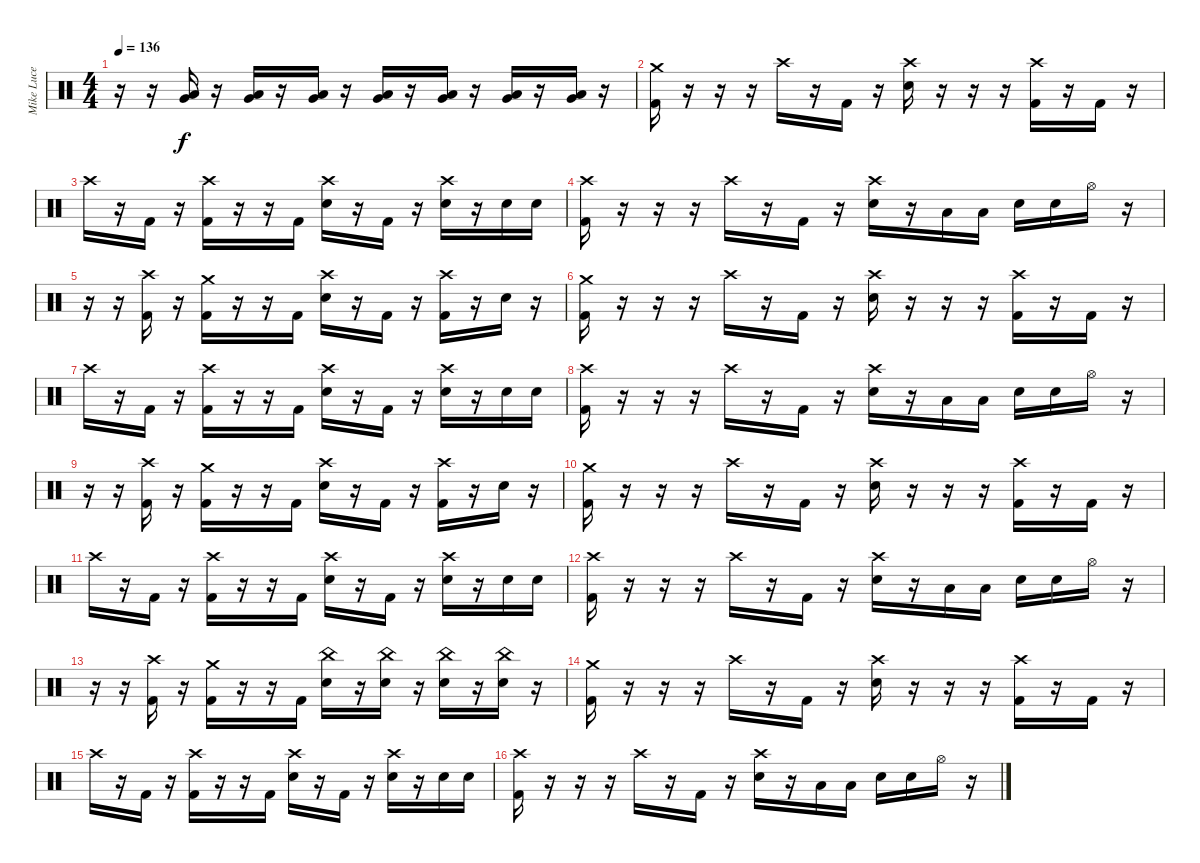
\track ("Mike Luce" "Mike Luce") {instrument percussion}
\staff {score}
\articulation defaults
\ts (4 4)
\tempo 136
\clef neutral
\ks c
r.16{dy f} r.16 ("Low Floor Tom (hit)" "Very Low Tom (hit)").16 r.16 ("Low Floor Tom (hit)" "Very Low Tom (hit)").16 r.16 ("Low Floor Tom (hit)" "Very Low Tom (hit)").16 r.16 ("Low Floor Tom (hit)" "Very Low Tom (hit)").16 r.16 ("Low Floor Tom (hit)" "Very Low Tom (hit)").16 r.16 ("Low Floor Tom (hit)" "Very Low Tom (hit)").16 r.16 ("Low Floor Tom (hit)" "Very Low Tom (hit)").16 r.16 |
("Crash medium (hit)" "Kick (hit) 2").16 r.16 r.16 r.16 "Crash high (hit)".16 r.16 "Kick (hit) 2".16 r.16 ("Crash high (hit)" "Electric Snare (hit)").16 r.16 r.16 r.16 ("Crash high (hit)" "Kick (hit) 2").16 r.16 "Kick (hit) 2".16 r.16 |
"Crash high (hit)".16 r.16 "Kick (hit) 2".16 r.16 ("Crash high (hit)" "Kick (hit) 2").16 r.16 r.16 "Kick (hit) 2".16 ("Crash high (hit)" "Electric Snare (hit)").16 r.16 "Kick (hit) 2".16 r.16 ("Crash high (hit)" "Electric Snare (hit)").16 r.16 "Electric Snare (hit)".16 "Electric Snare (hit)".16 |
("Crash high (hit)" "Kick (hit) 2").16 r.16 r.16 r.16 "Crash high (hit)".16 r.16 "Kick (hit) 2".16 r.16 ("Crash high (hit)" "Electric Snare (hit)").16 r.16 "Low Tom (hit)".16 "Low Tom (hit)".16 "Electric Snare (hit)".16 "Electric Snare (hit)".16 "Hi-Hat (open)".16 r.16 |
r.16 r.16 ("Crash high (hit)" "Kick (hit) 2").16 r.16 ("Crash medium (hit)" "Kick (hit) 2").16 r.16 r.16 "Kick (hit) 2".16 ("Crash high (hit)" "Electric Snare (hit)").16 r.16 "Kick (hit) 2".16 r.16 ("Crash high (hit)" "Kick (hit) 2").16 r.16 "Electric Snare (hit)".16 r.16 |
("Crash medium (hit)" "Kick (hit) 2").16 r.16 r.16 r.16 "Crash high (hit)".16 r.16 "Kick (hit) 2".16 r.16 ("Crash high (hit)" "Electric Snare (hit)").16 r.16 r.16 r.16 ("Crash high (hit)" "Kick (hit) 2").16 r.16 "Kick (hit) 2".16 r.16 |
"Crash high (hit)".16 r.16 "Kick (hit) 2".16 r.16 ("Crash high (hit)" "Kick (hit) 2").16 r.16 r.16 "Kick (hit) 2".16 ("Crash high (hit)" "Electric Snare (hit)").16 r.16 "Kick (hit) 2".16 r.16 ("Crash high (hit)" "Electric Snare (hit)").16 r.16 "Electric Snare (hit)".16 "Electric Snare (hit)".16 |
("Crash high (hit)" "Kick (hit) 2").16 r.16 r.16 r.16 "Crash high (hit)".16 r.16 "Kick (hit) 2".16 r.16 ("Crash high (hit)" "Electric Snare (hit)").16 r.16 "Low Tom (hit)".16 "Low Tom (hit)".16 "Electric Snare (hit)".16 "Electric Snare (hit)".16 "Hi-Hat (open)".16 r.16 |
r.16 r.16 ("Crash high (hit)" "Kick (hit) 2").16 r.16 ("Crash medium (hit)" "Kick (hit) 2").16 r.16 r.16 "Kick (hit) 2".16 ("Crash high (hit)" "Electric Snare (hit)").16 r.16 "Kick (hit) 2".16 r.16 ("Crash high (hit)" "Kick (hit) 2").16 r.16 "Electric Snare (hit)".16 r.16 |
("Crash medium (hit)" "Kick (hit) 2").16 r.16 r.16 r.16 "Crash high (hit)".16 r.16 "Kick (hit) 2".16 r.16 ("Crash high (hit)" "Electric Snare (hit)").16 r.16 r.16 r.16 ("Crash high (hit)" "Kick (hit) 2").16 r.16 "Kick (hit) 2".16 r.16 |
"Crash high (hit)".16 r.16 "Kick (hit) 2".16 r.16 ("Crash high (hit)" "Kick (hit) 2").16 r.16 r.16 "Kick (hit) 2".16 ("Crash high (hit)" "Electric Snare (hit)").16 r.16 "Kick (hit) 2".16 r.16 ("Crash high (hit)" "Electric Snare (hit)").16 r.16 "Electric Snare (hit)".16 "Electric Snare (hit)".16 |
("Crash high (hit)" "Kick (hit) 2").16 r.16 r.16 r.16 "Crash high (hit)".16 r.16 "Kick (hit) 2".16 r.16 ("Crash high (hit)" "Electric Snare (hit)").16 r.16 "Low Tom (hit)".16 "Low Tom (hit)".16 "Electric Snare (hit)".16 "Electric Snare (hit)".16 "Hi-Hat (open)".16 r.16 |
r.16 r.16 ("Crash high (hit)" "Kick (hit) 2").16 r.16 ("Crash medium (hit)" "Kick (hit) 2").16 r.16 r.16 "Kick (hit) 2".16 ("China (hit)" "Electric Snare (hit)").16 r.16 ("China (hit)" "Electric Snare (hit)").16 r.16 ("China (hit)" "Electric Snare (hit)").16 r.16 ("China (hit)" "Electric Snare (hit)").16 r.16 |
("Crash medium (hit)" "Kick (hit) 2").16 r.16 r.16 r.16 "Crash high (hit)".16 r.16 "Kick (hit) 2".16 r.16 ("Crash high (hit)" "Electric Snare (hit)").16 r.16 r.16 r.16 ("Crash high (hit)" "Kick (hit) 2").16 r.16 "Kick (hit) 2".16 r.16 |
"Crash high (hit)".16 r.16 "Kick (hit) 2".16 r.16 ("Crash high (hit)" "Kick (hit) 2").16 r.16 r.16 "Kick (hit) 2".16 ("Crash high (hit)" "Electric Snare (hit)").16 r.16 "Kick (hit) 2".16 r.16 ("Crash high (hit)" "Electric Snare (hit)").16 r.16 "Electric Snare (hit)".16 "Electric Snare (hit)".16 |
("Crash high (hit)" "Kick (hit) 2").16 r.16 r.16 r.16 "Crash high (hit)".16 r.16 "Kick (hit) 2".16 r.16 ("Crash high (hit)" "Electric Snare (hit)").16 r.16 "Low Tom (hit)".16 "Low Tom (hit)".16 "Electric Snare (hit)".16 "Electric Snare (hit)".16 "Hi-Hat (open)".16 r.16
